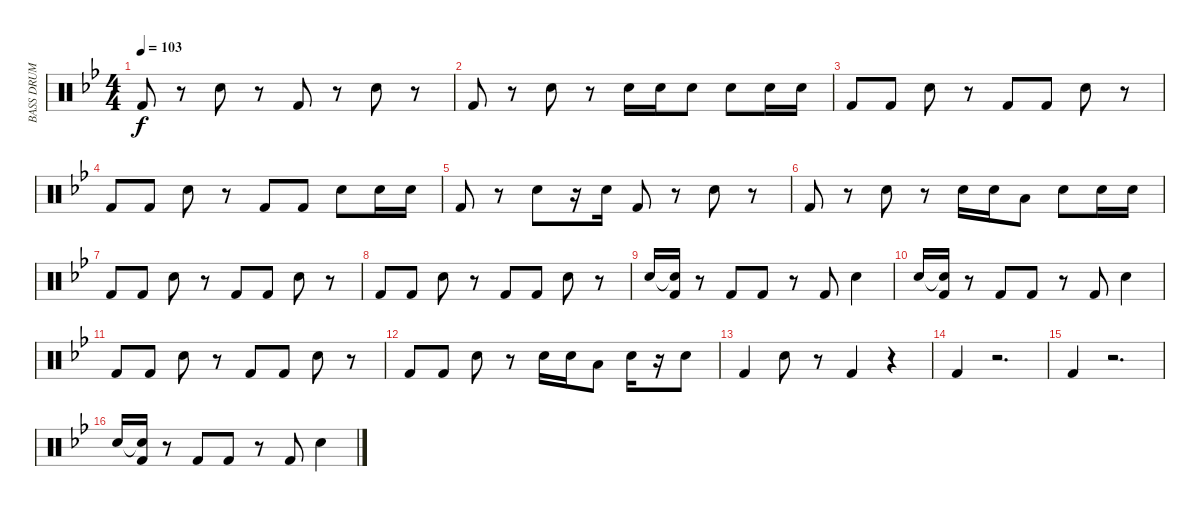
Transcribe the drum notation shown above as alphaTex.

\track ("BASS DRUM / SNARE / TOMS" "BASS DRUM ") {instrument percussion}
\staff {score}
\articulation defaults
\ts (4 4)
\tempo 103
\clef neutral
\ks bb "Kick (hit) 2".8{dy f}
r.8 "Snare (hit) 2".8 r.8 "Kick (hit) 2".8 r.8 "Snare (hit) 2".8 r.8 |
"Kick (hit) 2".8 r.8 "Snare (hit) 2".8 r.8 "Snare (hit) 2".16 "Snare (hit) 2".16 "Snare (hit) 2".8 "Snare (hit) 2".8 "Snare (hit) 2".16 "Snare (hit) 2".16 |
"Kick (hit) 2".8 "Kick (hit) 2".8 "Snare (hit) 2".8 r.8 "Kick (hit) 2".8 "Kick (hit) 2".8 "Snare (hit) 2".8 r.8 |
"Kick (hit) 2".8 "Kick (hit) 2".8 "Snare (hit) 2".8 r.8 "Kick (hit) 2".8 "Kick (hit) 2".8 "Snare (hit) 2".8 "Snare (hit) 2".16 "Snare (hit) 2".16 |
"Kick (hit) 2".8 r.8 "Snare (hit) 2".8 r.16 "Snare (hit) 2".16 "Kick (hit) 2".8 r.8 "Snare (hit) 2".8 r.8 |
"Kick (hit) 2".8 r.8 "Snare (hit) 2".8 r.8 "Snare (hit) 2".16 "Snare (hit) 2".16 "Low Floor Tom (hit)".8 "Snare (hit) 2".8 "Snare (hit) 2".16 "Snare (hit) 2".16 |
"Kick (hit) 2".8 "Kick (hit) 2".8 "Snare (hit) 2".8 r.8 "Kick (hit) 2".8 "Kick (hit) 2".8 "Snare (hit) 2".8 r.8 |
"Kick (hit) 2".8 "Kick (hit) 2".8 "Snare (hit) 2".8 r.8 "Kick (hit) 2".8 "Kick (hit) 2".8 "Snare (hit) 2".8 r.8 |
"Snare (hit) 2".16 ("Snare (hit) 2"{t} "Kick (hit) 2").16 r.8 "Kick (hit) 2".8 "Kick (hit) 2".8 r.8 "Kick (hit) 2".8 "Snare (hit) 2".4 |
"Snare (hit) 2".16 ("Snare (hit) 2"{t} "Kick (hit) 2").16 r.8 "Kick (hit) 2".8 "Kick (hit) 2".8 r.8 "Kick (hit) 2".8 "Snare (hit) 2".4 |
"Kick (hit) 2".8 "Kick (hit) 2".8 "Snare (hit) 2".8 r.8 "Kick (hit) 2".8 "Kick (hit) 2".8 "Snare (hit) 2".8 r.8 |
"Kick (hit) 2".8 "Kick (hit) 2".8 "Snare (hit) 2".8 r.8 "Snare (hit) 2".16 "Snare (hit) 2".16 "Low Floor Tom (hit)".8 "Snare (hit) 2".16 r.16 "Snare (hit) 2".8 |
"Kick (hit) 2".4 "Snare (hit) 2".8 r.8 "Kick (hit) 2".4 r.4 |
"Kick (hit) 2".4 r.2{d} |
"Kick (hit) 2".4 r.2{d} |
"Snare (hit) 2".16 ("Snare (hit) 2"{t} "Kick (hit) 2").16 r.8 "Kick (hit) 2".8 "Kick (hit) 2".8 r.8 "Kick (hit) 2".8 "Snare (hit) 2".4
